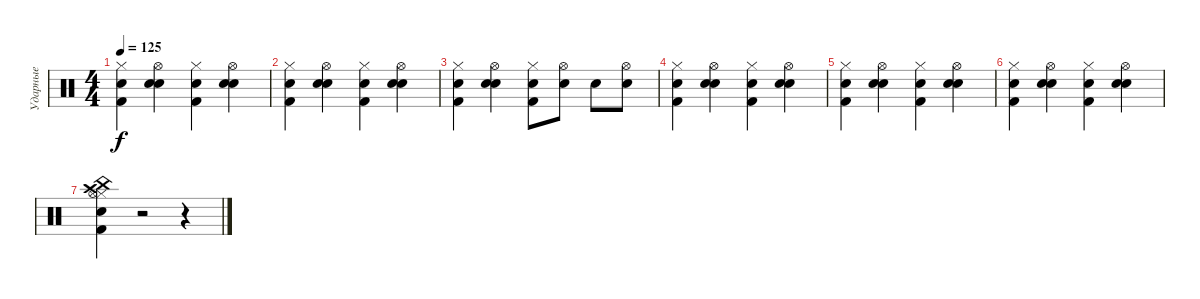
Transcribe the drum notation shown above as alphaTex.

\track ("Ударные" "Ударные") {instrument percussion}
\staff {score}
\articulation defaults
\ts (4 4)
\tempo 125
\clef neutral
\ks c
("Hi-Hat (closed)" "Kick (hit) 2" "Hand Clap (hit)").4{dy f} ("Hi-Hat (open)" "Electric Snare (hit)" "Hand Clap (hit)").4 ("Hi-Hat (closed)" "Kick (hit) 2" "Hand Clap (hit)").4 ("Hi-Hat (open)" "Electric Snare (hit)" "Hand Clap (hit)").4 |
("Hi-Hat (closed)" "Kick (hit) 2" "Hand Clap (hit)").4 ("Hi-Hat (open)" "Electric Snare (hit)" "Hand Clap (hit)").4 ("Hi-Hat (closed)" "Kick (hit) 2" "Hand Clap (hit)").4 ("Hi-Hat (open)" "Electric Snare (hit)" "Hand Clap (hit)").4 |
("Hi-Hat (closed)" "Kick (hit) 2" "Hand Clap (hit)").4 ("Hi-Hat (open)" "Electric Snare (hit)" "Hand Clap (hit)").4 ("Hi-Hat (closed)" "Kick (hit) 2" "Hand Clap (hit)").8 ("Hi-Hat (open)" "Electric Snare (hit)").8 "Hand Clap (hit)".8 ("Hi-Hat (open)" "Electric Snare (hit)").8 |
("Hi-Hat (closed)" "Kick (hit) 2" "Hand Clap (hit)").4 ("Hi-Hat (open)" "Electric Snare (hit)" "Hand Clap (hit)").4 ("Hi-Hat (closed)" "Kick (hit) 2" "Hand Clap (hit)").4 ("Hi-Hat (open)" "Electric Snare (hit)" "Hand Clap (hit)").4 |
("Hi-Hat (closed)" "Kick (hit) 2" "Hand Clap (hit)").4 ("Hi-Hat (open)" "Electric Snare (hit)" "Hand Clap (hit)").4 ("Hi-Hat (closed)" "Kick (hit) 2" "Hand Clap (hit)").4 ("Hi-Hat (open)" "Electric Snare (hit)" "Hand Clap (hit)").4 |
("Hi-Hat (closed)" "Kick (hit) 2" "Hand Clap (hit)").4 ("Hi-Hat (open)" "Electric Snare (hit)" "Hand Clap (hit)").4 ("Hi-Hat (closed)" "Kick (hit) 2" "Hand Clap (hit)").4 ("Hi-Hat (open)" "Electric Snare (hit)" "Hand Clap (hit)").4 |
("China (hit)" "Crash high (hit)" "Hi-Hat (closed)" "Kick (hit) 2" "Hand Clap (hit)" "Hi-Hat (open)").4 r.2 r.4
